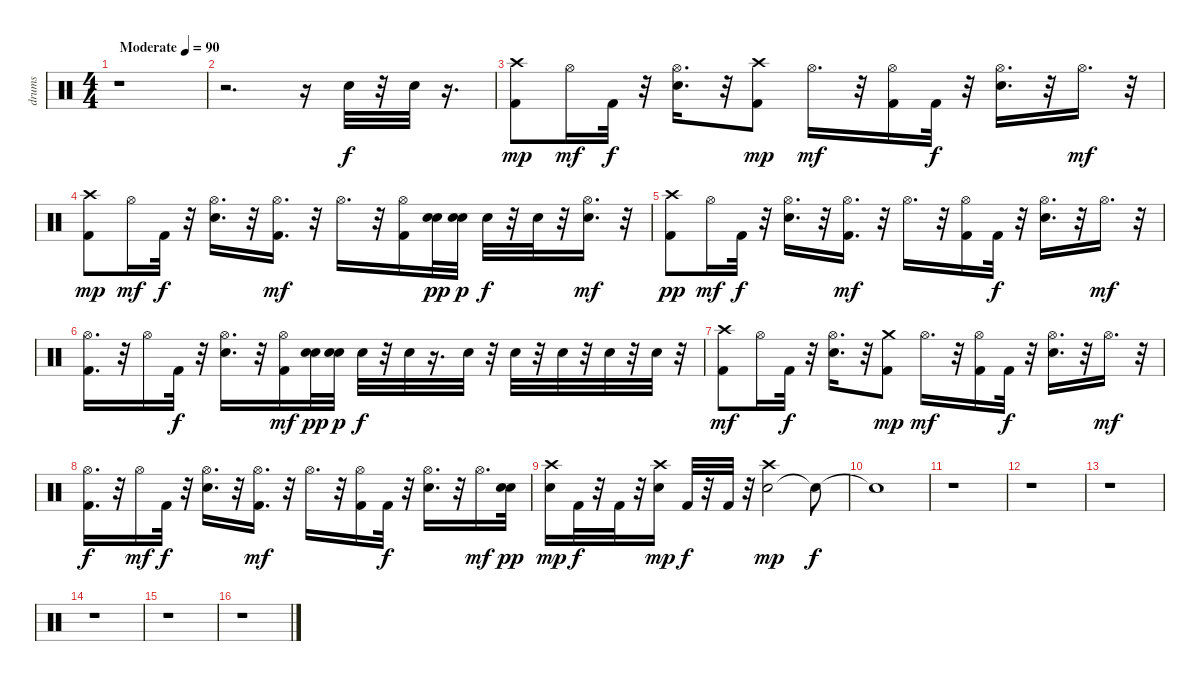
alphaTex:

\track ("drums" "drums") {instrument percussion}
\staff {score}
\articulation defaults
\ts (4 4)
\tempo (90 "Moderate")
\clef neutral
\ks c
r.1{dy f} |
r.2{d} r.16 "Snare (hit) 2".32 r.32 "Snare (hit) 2".32 r.16{d} |
("Kick (hit) 2" "Crash high (hit)").8{dy mp} "Hi-Hat (open)".16{dy mf} "Kick (hit) 2".32{dy f} r.32 ("Snare (hit) 2" "Hi-Hat (open)").16{d} r.32 ("Kick (hit) 2" "Crash high (hit)").8{dy mp} "Hi-Hat (open)".16{d dy mf} r.32 ("Kick (hit) 2" "Hi-Hat (open)").16 "Kick (hit) 2".32{dy f} r.32 ("Snare (hit) 2" "Hi-Hat (open)").16{d} r.32 "Hi-Hat (open)".16{d dy mf} r.32 |
("Kick (hit) 2" "Crash high (hit)").8{dy mp} "Hi-Hat (open)".16{dy mf} "Kick (hit) 2".32{dy f} r.32 ("Snare (hit) 2" "Hi-Hat (open)").16{d} r.32 ("Kick (hit) 2" "Hi-Hat (open)").16{d dy mf} r.32 "Hi-Hat (open)".16{d} r.32 ("Kick (hit) 2" "Hi-Hat (open)").16 ("Snare (hit) 2" "Snare (hit) 2").32{dy pp} ("Snare (hit) 2" "Snare (hit) 2").32{dy p} "Snare (hit) 2".32{dy f} r.32 "Snare (hit) 2".32 r.32 ("Snare (hit) 2" "Hi-Hat (open)").16{d dy mf} r.32 |
("Kick (hit) 2" "Crash high (hit)").8{dy pp} "Hi-Hat (open)".16{dy mf} "Kick (hit) 2".32{dy f} r.32 ("Snare (hit) 2" "Hi-Hat (open)").16{d} r.32 ("Kick (hit) 2" "Hi-Hat (open)").16{d dy mf} r.32 "Hi-Hat (open)".16{d} r.32 ("Kick (hit) 2" "Hi-Hat (open)").16 "Kick (hit) 2".32{dy f} r.32 ("Snare (hit) 2" "Hi-Hat (open)").16{d} r.32 "Hi-Hat (open)".16{d dy mf} r.32 |
("Kick (hit) 2" "Hi-Hat (open)").16{d} r.32 "Hi-Hat (open)".16 "Kick (hit) 2".32{dy f} r.32 ("Snare (hit) 2" "Hi-Hat (open)").16{d} r.32 ("Kick (hit) 2" "Hi-Hat (open)").16{dy mf} ("Snare (hit) 2" "Snare (hit) 2").32{dy pp} ("Snare (hit) 2" "Snare (hit) 2").32{dy p} "Snare (hit) 2".32{dy f} r.32 "Snare (hit) 2".32 r.16{d} "Snare (hit) 2".32 r.32 "Snare (hit) 2".32 r.32 "Snare (hit) 2".32 r.32 "Snare (hit) 2".32 r.32 "Snare (hit) 2".32 r.32 |
("Kick (hit) 2" "Crash high (hit)").8{dy mf} "Hi-Hat (open)".16 "Kick (hit) 2".32{dy f} r.32 ("Snare (hit) 2" "Hi-Hat (open)").16{d} r.32 ("Kick (hit) 2" "Crash medium (hit)").8{dy mp} "Hi-Hat (open)".16{d dy mf} r.32 ("Kick (hit) 2" "Hi-Hat (open)").16 "Kick (hit) 2".32{dy f} r.32 ("Snare (hit) 2" "Hi-Hat (open)").16{d} r.32 "Hi-Hat (open)".16{d dy mf} r.32 |
("Kick (hit) 2" "Hi-Hat (open)").16{d dy f} r.32 "Hi-Hat (open)".16{dy mf} "Kick (hit) 2".32{dy f} r.32 ("Snare (hit) 2" "Hi-Hat (open)").16{d} r.32 ("Kick (hit) 2" "Hi-Hat (open)").16{d dy mf} r.32 "Hi-Hat (open)".16{d} r.32 ("Kick (hit) 2" "Hi-Hat (open)").16 "Kick (hit) 2".32{dy f} r.32 ("Snare (hit) 2" "Hi-Hat (open)").16{d} r.32 "Hi-Hat (open)".16{d dy mf} ("Snare (hit) 2" "Snare (hit) 2").32{dy pp} |
("Snare (hit) 2" "Crash high (hit)").16{dy mp} "Kick (hit) 2".32{dy f} r.32 "Kick (hit) 2".32 r.32 ("Snare (hit) 2" "Crash high (hit)").16{dy mp} "Kick (hit) 2".32{dy f} r.32 "Kick (hit) 2".32 r.32 ("Snare (hit) 2" "Crash high (hit)").2{dy mp} "Snare (hit)"{t}.8{dy f} |
"Snare (hit)"{t}.1 |
r.1 |
r.1 |
r.1 |
r.1 |
r.1 |
r.1
